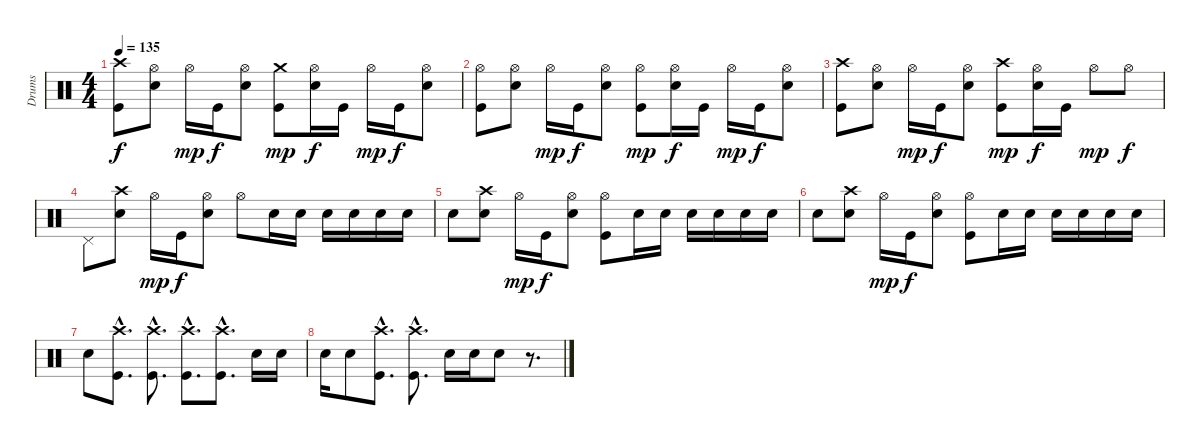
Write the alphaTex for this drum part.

\track ("Drums" "Drums") {instrument percussion}
\staff {score}
\articulation defaults
\ts (4 4)
\tempo 135
\clef neutral
\ks c
("Crash high (hit)" "Kick (hit)").8{dy f} ("Hi-Hat (open)" "Snare (hit) 2").8 "Hi-Hat (open)".16{dy mp} "Kick (hit)".16{dy f} ("Hi-Hat (open)" "Snare (hit) 2").8 ("Crash medium (hit)" "Kick (hit)").8{dy mp} ("Hi-Hat (open)" "Snare (hit) 2").16{dy f} "Kick (hit)".16 "Hi-Hat (open)".16{dy mp} "Kick (hit)".16{dy f} ("Hi-Hat (open)" "Snare (hit) 2").8 |
("Hi-Hat (open)" "Kick (hit)").8 ("Hi-Hat (open)" "Snare (hit) 2").8 "Hi-Hat (open)".16{dy mp} "Kick (hit)".16{dy f} ("Hi-Hat (open)" "Snare (hit) 2").8 ("Hi-Hat (open)" "Kick (hit)").8{dy mp} ("Hi-Hat (open)" "Snare (hit) 2").16{dy f} "Kick (hit)".16 "Hi-Hat (open)".16{dy mp} "Kick (hit)".16{dy f} ("Hi-Hat (open)" "Snare (hit) 2").8 |
("Crash high (hit)" "Kick (hit)").8 ("Hi-Hat (open)" "Snare (hit) 2").8 "Hi-Hat (open)".16{dy mp} "Kick (hit)".16{dy f} ("Hi-Hat (open)" "Snare (hit) 2").8 ("Crash high (hit)" "Kick (hit)").8{dy mp} ("Hi-Hat (open)" "Snare (hit) 2").16{dy f} "Kick (hit)".16 "Hi-Hat (open)".8{dy mp} "Hi-Hat (open)".8{dy f} |
"Pedal Hi-Hat (hit)".8 ("Crash high (hit)" "Snare (hit) 2").8 "Hi-Hat (open)".16{dy mp} "Kick (hit)".16{dy f} ("Hi-Hat (open)" "Snare (hit) 2").8 "Hi-Hat (open)".8 "Snare (hit) 2".16 "Snare (hit) 2".16 "Snare (hit) 2".16 "Snare (hit) 2".16 "Snare (hit) 2".16 "Snare (hit) 2".16 |
"Snare (hit) 2".8 ("Crash high (hit)" "Snare (hit) 2").8 "Hi-Hat (open)".16{dy mp} "Kick (hit)".16{dy f} ("Hi-Hat (open)" "Snare (hit) 2").8 ("Hi-Hat (open)" "Kick (hit)").8 "Snare (hit) 2".16 "Snare (hit) 2".16 "Snare (hit) 2".16 "Snare (hit) 2".16 "Snare (hit) 2".16 "Snare (hit) 2".16 |
"Snare (hit) 2".8 ("Crash high (hit)" "Snare (hit) 2").8 "Hi-Hat (open)".16{dy mp} "Kick (hit)".16{dy f} ("Hi-Hat (open)" "Snare (hit) 2").8 ("Hi-Hat (open)" "Kick (hit)").8 "Snare (hit) 2".16 "Snare (hit) 2".16 "Snare (hit) 2".16 "Snare (hit) 2".16 "Snare (hit) 2".16 "Snare (hit) 2".16 |
"Snare (hit) 2".8 ("Crash high (hit)"{hac} "Kick (hit)"{hac}).8{d} ("Crash high (hit)"{hac} "Kick (hit)"{hac}).8{d} ("Crash high (hit)"{hac} "Kick (hit)"{hac}).8{d} ("Crash high (hit)"{hac} "Kick (hit)"{hac}).8{d} "Snare (hit) 2".16 "Snare (hit) 2".16 |
"Snare (hit) 2".16 "Snare (hit) 2".8 ("Crash high (hit)"{hac} "Kick (hit)"{hac}).8{d} ("Crash high (hit)"{hac} "Kick (hit)"{hac}).8{d} "Snare (hit) 2".16 "Snare (hit) 2".16 "Snare (hit) 2".8 r.8{d}
